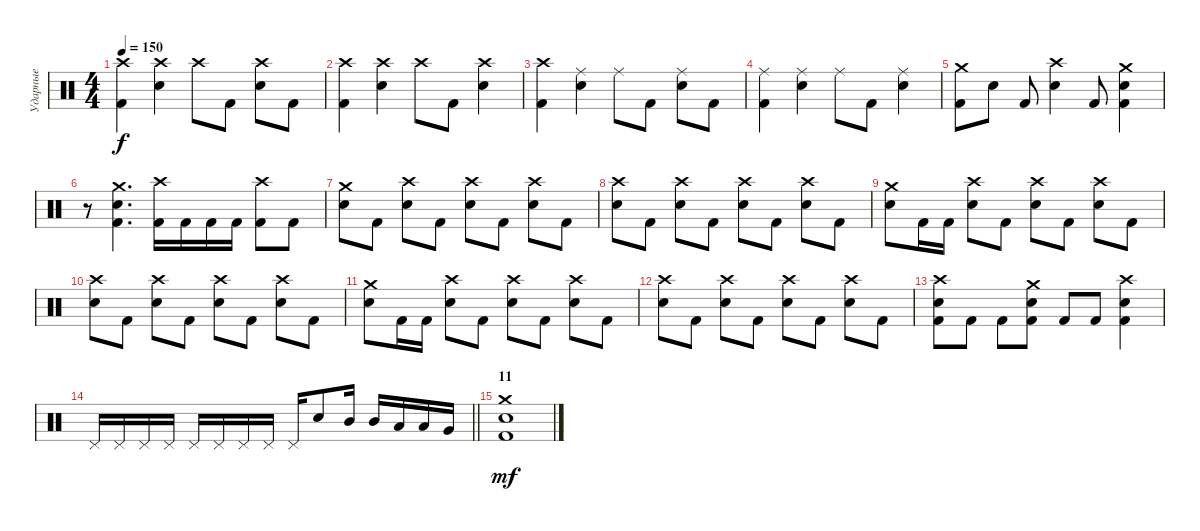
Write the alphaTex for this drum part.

\track ("Ударные" "Ударные") {instrument percussion}
\staff {score}
\articulation defaults
\ts (4 4)
\tempo 150
\clef neutral
\ks c
("Crash high (hit)" "Kick (hit) 2").4{dy f} ("Crash high (hit)" "Electric Snare (hit)").4 "Crash high (hit)".8 "Kick (hit) 2".8 ("Crash high (hit)" "Electric Snare (hit)").8 "Kick (hit) 2".8 |
("Crash high (hit)" "Kick (hit) 2").4 ("Crash high (hit)" "Electric Snare (hit)").4 "Crash high (hit)".8 "Kick (hit) 2".8 ("Crash high (hit)" "Electric Snare (hit)").4 |
("Crash high (hit)" "Kick (hit) 2").4 ("Ride (middle)" "Electric Snare (hit)").4 "Ride (middle)".8 "Kick (hit) 2".8 ("Ride (middle)" "Electric Snare (hit)").8 "Kick (hit) 2".8 |
("Ride (middle)" "Kick (hit) 2").4 ("Ride (middle)" "Electric Snare (hit)").4 "Ride (middle)".8 "Kick (hit) 2".8 ("Ride (middle)" "Electric Snare (hit)").4 |
("Crash medium (hit)" "Kick (hit) 2").8 "Electric Snare (hit)".8 "Kick (hit) 2".8 ("Crash high (hit)" "Snare (hit) 2").4 "Kick (hit) 2".8 ("Crash medium (hit)" "Electric Snare (hit)" "Kick (hit) 2").4 |
r.8 ("Crash medium (hit)" "Electric Snare (hit)" "Kick (hit) 2").4{d} ("Crash high (hit)" "Kick (hit) 2").16 "Kick (hit) 2".16 "Kick (hit) 2".16 "Kick (hit) 2".16 ("Crash high (hit)" "Kick (hit) 2").8 "Kick (hit) 2".8 |
("Crash medium (hit)" "Electric Snare (hit)").8 "Kick (hit) 2".8 ("Crash high (hit)" "Snare (hit) 2").8 "Kick (hit) 2".8 ("Crash high (hit)" "Snare (hit) 2").8 "Kick (hit) 2".8 ("Crash high (hit)" "Snare (hit) 2").8 "Kick (hit) 2".8 |
("Crash high (hit)" "Snare (hit) 2").8 "Kick (hit) 2".8 ("Crash high (hit)" "Snare (hit) 2").8 "Kick (hit) 2".8 ("Crash high (hit)" "Snare (hit) 2").8 "Kick (hit) 2".8 ("Crash high (hit)" "Snare (hit) 2").8 "Kick (hit) 2".8 |
("Crash medium (hit)" "Electric Snare (hit)").8 "Kick (hit) 2".16 "Kick (hit) 2".16 ("Crash high (hit)" "Snare (hit) 2").8 "Kick (hit) 2".8 ("Crash high (hit)" "Snare (hit) 2").8 "Kick (hit) 2".8 ("Crash high (hit)" "Snare (hit) 2").8 "Kick (hit) 2".8 |
("Crash high (hit)" "Snare (hit) 2").8 "Kick (hit) 2".8 ("Crash high (hit)" "Snare (hit) 2").8 "Kick (hit) 2".8 ("Crash high (hit)" "Snare (hit) 2").8 "Kick (hit) 2".8 ("Crash high (hit)" "Snare (hit) 2").8 "Kick (hit) 2".8 |
("Crash medium (hit)" "Electric Snare (hit)").8 "Kick (hit) 2".16 "Kick (hit) 2".16 ("Crash high (hit)" "Snare (hit) 2").8 "Kick (hit) 2".8 ("Crash high (hit)" "Snare (hit) 2").8 "Kick (hit) 2".8 ("Crash high (hit)" "Snare (hit) 2").8 "Kick (hit) 2".8 |
("Crash high (hit)" "Snare (hit) 2").8 "Kick (hit) 2".8 ("Crash high (hit)" "Snare (hit) 2").8 "Kick (hit) 2".8 ("Crash high (hit)" "Snare (hit) 2").8 "Kick (hit) 2".8 ("Crash high (hit)" "Snare (hit) 2").8 "Kick (hit) 2".8 |
("Crash high (hit)" "Electric Snare (hit)" "Kick (hit) 2").8 "Kick (hit) 2".8 "Kick (hit) 2".8 ("Crash medium (hit)" "Electric Snare (hit)" "Kick (hit) 2").8 "Kick (hit) 2".8 "Kick (hit) 2".8 ("Crash high (hit)" "Electric Snare (hit)" "Kick (hit) 2").4 |
\barLineRight lightlight "Pedal Hi-Hat (hit)".16 "Pedal Hi-Hat (hit)".16 "Pedal Hi-Hat (hit)".16 "Pedal Hi-Hat (hit)".16 "Pedal Hi-Hat (hit)".16 "Pedal Hi-Hat (hit)".16 "Pedal Hi-Hat (hit)".16 "Pedal Hi-Hat (hit)".16 "Pedal Hi-Hat (hit)".16 "Electric Snare (hit)".8 "Mid Tom (hit)".16 "Mid Tom (hit)".16 "Low Tom (hit)".16 "Low Tom (hit)".16 "Very Low Tom (hit)".16
|
\section ("" "11")
("Crash medium (hit)" "Electric Snare (hit)" "Kick (hit) 2").1{dy mf}
